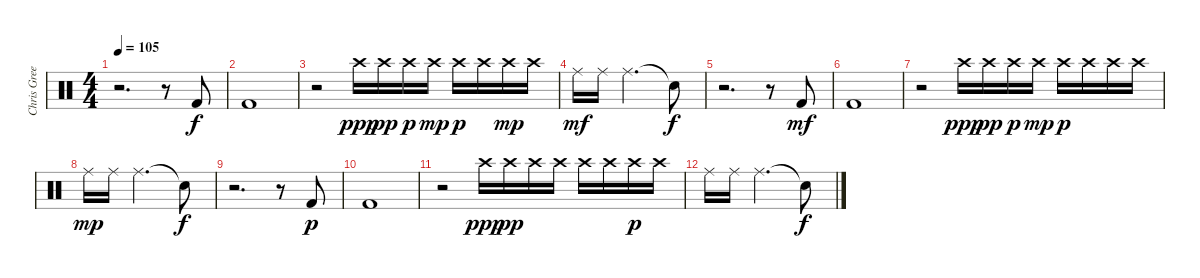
\track ("Chris Greene" "Chris Gree") {instrument percussion}
\staff {score}
\articulation defaults
\ts (4 4)
\tempo 105
\clef neutral
\ks c
r.2{d dy f} r.8 "Kick (hit) 2".8 |
"Kick (hit) 2".1 |
r.2 "Crash high (hit)".16{dy ppp} "Crash high (hit)".16{dy pp} "Crash high (hit)".16{dy p} "Crash high (hit)".16{dy mp} "Crash high (hit)".16{dy p} "Crash high (hit)".16 "Crash high (hit)".16{dy mp} "Crash high (hit)".16 |
"Ride (middle)".16{dy mf} "Ride (middle)".16 "Ride (middle)".2{d} "Snare (hit)"{t}.8{dy f} |
r.2{d} r.8 "Kick (hit) 2".8{dy mf} |
"Kick (hit) 2".1 |
r.2 "Crash high (hit)".16{dy ppp} "Crash high (hit)".16{dy pp} "Crash high (hit)".16{dy p} "Crash high (hit)".16{dy mp} "Crash high (hit)".16{dy p} "Crash high (hit)".16 "Crash high (hit)".16 "Crash high (hit)".16 |
"Ride (middle)".16{dy mp} "Ride (middle)".16 "Ride (middle)".2{d} "Snare (hit)"{t}.8{dy f} |
r.2{d} r.8 "Kick (hit) 2".8{dy p} |
"Kick (hit) 2".1 |
r.2 "Crash high (hit)".16{dy ppp} "Crash high (hit)".16{dy pp} "Crash high (hit)".16 "Crash high (hit)".16 "Crash high (hit)".16 "Crash high (hit)".16 "Crash high (hit)".16{dy p} "Crash high (hit)".16 |
"Ride (middle)".16 "Ride (middle)".16 "Ride (middle)".2{d} "Snare (hit)"{t}.8{dy f}
